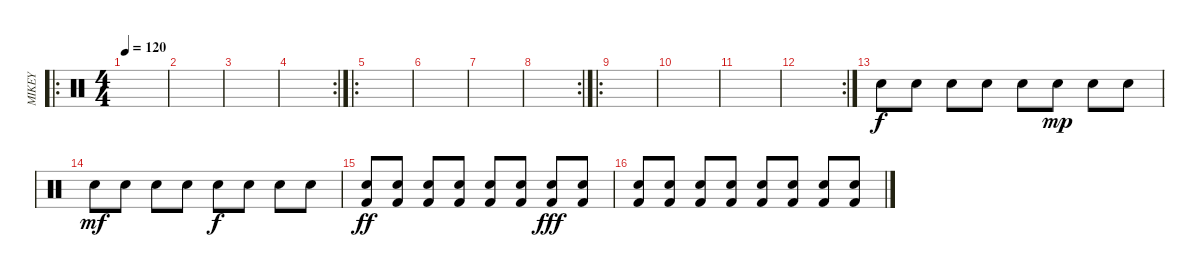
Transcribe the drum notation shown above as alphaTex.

\track ("MIKEY" "MIKEY") {instrument percussion}
\staff {score}
\articulation defaults
\ro
\ts (4 4)
\tempo 120
\clef neutral
\ks c
|
|
|
\rc 2
|
\ro
|
|
|
\rc 2
|
\ro
|
|
|
\rc 2
|
"Electric Snare (hit)".8 "Electric Snare (hit)".8 "Electric Snare (hit)".8 "Electric Snare (hit)".8 "Electric Snare (hit)".8 "Electric Snare (hit)".8{dy mp} "Electric Snare (hit)".8 "Electric Snare (hit)".8 |
"Electric Snare (hit)".8{dy mf} "Electric Snare (hit)".8 "Electric Snare (hit)".8 "Electric Snare (hit)".8 "Electric Snare (hit)".8{dy f} "Electric Snare (hit)".8 "Electric Snare (hit)".8 "Electric Snare (hit)".8 |
("Kick (hit) 2" "Electric Snare (hit)").8{dy ff} ("Kick (hit) 2" "Electric Snare (hit)").8 ("Kick (hit) 2" "Electric Snare (hit)").8 ("Kick (hit) 2" "Electric Snare (hit)").8 ("Kick (hit) 2" "Electric Snare (hit)").8 ("Kick (hit) 2" "Electric Snare (hit)").8 ("Kick (hit) 2" "Electric Snare (hit)").8{dy fff} ("Kick (hit) 2" "Electric Snare (hit)").8 |
("Kick (hit) 2" "Electric Snare (hit)").8 ("Kick (hit) 2" "Electric Snare (hit)").8 ("Kick (hit) 2" "Electric Snare (hit)").8 ("Kick (hit) 2" "Electric Snare (hit)").8 ("Kick (hit) 2" "Electric Snare (hit)").8 ("Kick (hit) 2" "Electric Snare (hit)").8 ("Kick (hit) 2" "Electric Snare (hit)").8 ("Kick (hit) 2" "Electric Snare (hit)").8
